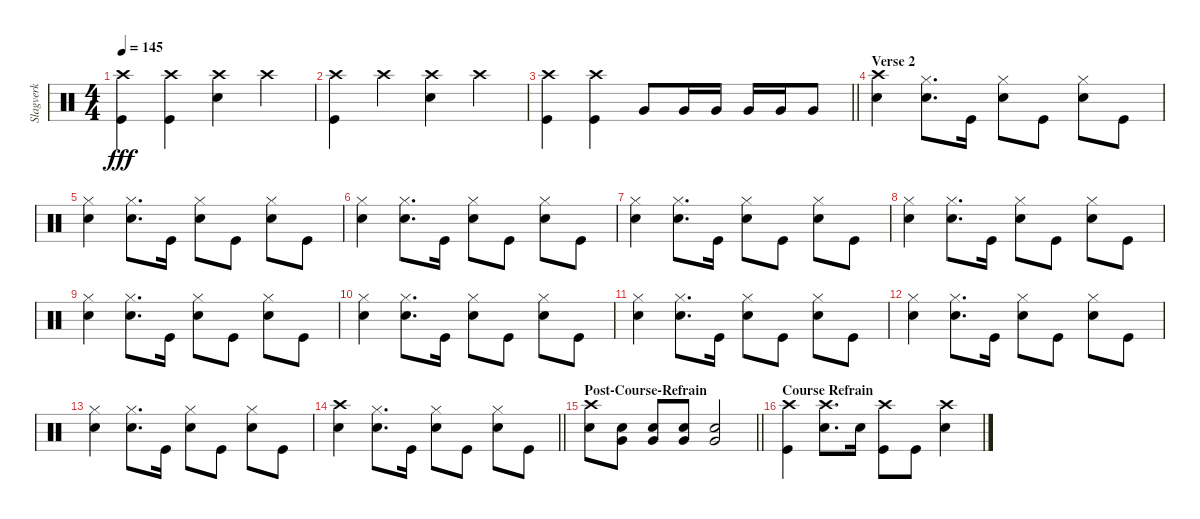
\track ("Slagverk" "Slagverk") {instrument percussion}
\staff {score}
\articulation defaults
\ts (4 4)
\tempo 145
\clef neutral
\ks c
("Crash high (hit)" "Kick (hit)").4{dy fff} ("Crash high (hit)" "Kick (hit)").4 ("Crash high (hit)" "Snare (hit) 2").4 "Crash high (hit)".4 |
("Crash high (hit)" "Kick (hit)").4 "Crash high (hit)".4 ("Crash high (hit)" "Snare (hit) 2").4 "Crash high (hit)".4 |
\barLineRight lightlight
("Crash high (hit)" "Kick (hit)").4 ("Crash high (hit)" "Kick (hit)").4 "Very Low Tom (hit)".8 "Very Low Tom (hit)".16 "Very Low Tom (hit)".16 "Very Low Tom (hit)".16 "Very Low Tom (hit)".16 "Very Low Tom (hit)".8 |
\section ("" "Verse 2")
("Snare (hit) 2" "Crash high (hit)").4 ("Snare (hit) 2" "Hi-Hat (closed)").8{d} "Kick (hit)".16 ("Snare (hit) 2" "Hi-Hat (closed)").8 "Kick (hit)".8 ("Snare (hit) 2" "Hi-Hat (closed)").8 "Kick (hit)".8 |
("Snare (hit) 2" "Hi-Hat (closed)").4 ("Snare (hit) 2" "Hi-Hat (closed)").8{d} "Kick (hit)".16 ("Snare (hit) 2" "Hi-Hat (closed)").8 "Kick (hit)".8 ("Snare (hit) 2" "Hi-Hat (closed)").8 "Kick (hit)".8 |
("Snare (hit) 2" "Hi-Hat (closed)").4 ("Snare (hit) 2" "Hi-Hat (closed)").8{d} "Kick (hit)".16 ("Snare (hit) 2" "Hi-Hat (closed)").8 "Kick (hit)".8 ("Snare (hit) 2" "Hi-Hat (closed)").8 "Kick (hit)".8 |
("Snare (hit) 2" "Hi-Hat (closed)").4 ("Snare (hit) 2" "Hi-Hat (closed)").8{d} "Kick (hit)".16 ("Snare (hit) 2" "Hi-Hat (closed)").8 "Kick (hit)".8 ("Snare (hit) 2" "Hi-Hat (closed)").8 "Kick (hit)".8 |
("Snare (hit) 2" "Hi-Hat (closed)").4 ("Snare (hit) 2" "Hi-Hat (closed)").8{d} "Kick (hit)".16 ("Snare (hit) 2" "Hi-Hat (closed)").8 "Kick (hit)".8 ("Snare (hit) 2" "Hi-Hat (closed)").8 "Kick (hit)".8 |
("Snare (hit) 2" "Hi-Hat (closed)").4 ("Snare (hit) 2" "Hi-Hat (closed)").8{d} "Kick (hit)".16 ("Snare (hit) 2" "Hi-Hat (closed)").8 "Kick (hit)".8 ("Snare (hit) 2" "Hi-Hat (closed)").8 "Kick (hit)".8 |
("Snare (hit) 2" "Hi-Hat (closed)").4 ("Snare (hit) 2" "Hi-Hat (closed)").8{d} "Kick (hit)".16 ("Snare (hit) 2" "Hi-Hat (closed)").8 "Kick (hit)".8 ("Snare (hit) 2" "Hi-Hat (closed)").8 "Kick (hit)".8 |
("Snare (hit) 2" "Hi-Hat (closed)").4 ("Snare (hit) 2" "Hi-Hat (closed)").8{d} "Kick (hit)".16 ("Snare (hit) 2" "Hi-Hat (closed)").8 "Kick (hit)".8 ("Snare (hit) 2" "Hi-Hat (closed)").8 "Kick (hit)".8 |
("Snare (hit) 2" "Hi-Hat (closed)").4 ("Snare (hit) 2" "Hi-Hat (closed)").8{d} "Kick (hit)".16 ("Snare (hit) 2" "Hi-Hat (closed)").8 "Kick (hit)".8 ("Snare (hit) 2" "Hi-Hat (closed)").8 "Kick (hit)".8 |
("Snare (hit) 2" "Hi-Hat (closed)").4 ("Snare (hit) 2" "Hi-Hat (closed)").8{d} "Kick (hit)".16 ("Snare (hit) 2" "Hi-Hat (closed)").8 "Kick (hit)".8 ("Snare (hit) 2" "Hi-Hat (closed)").8 "Kick (hit)".8 |
\barLineRight lightlight
("Snare (hit) 2" "Crash high (hit)").4 ("Snare (hit) 2" "Hi-Hat (closed)").8{d} "Kick (hit)".16 ("Snare (hit) 2" "Hi-Hat (closed)").8 "Kick (hit)".8 ("Snare (hit) 2" "Hi-Hat (closed)").8 "Kick (hit)".8 |
\section ("" "Post-Course-Refrain")
\barLineRight lightlight
("Snare (hit) 2" "Crash high (hit)").8 ("Very Low Tom (hit)" "Snare (hit) 2").8 ("Very Low Tom (hit)" "Snare (hit) 2").8 ("Very Low Tom (hit)" "Snare (hit) 2").8 ("Very Low Tom (hit)" "Snare (hit) 2").2 |
\section ("" "Course Refrain")
("Crash high (hit)" "Kick (hit)").4 ("Crash high (hit)" "Snare (hit) 2").8{d} "Snare (hit) 2".16 ("Crash high (hit)" "Kick (hit)").8 "Kick (hit)".8 ("Crash high (hit)" "Snare (hit) 2").4
